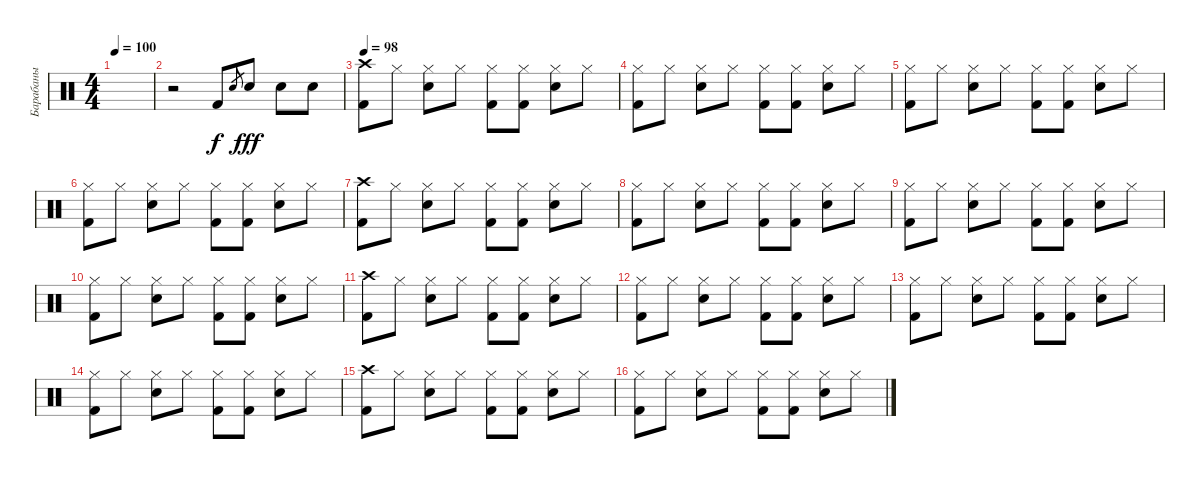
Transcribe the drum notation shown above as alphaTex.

\track ("Барабаны" "Барабаны") {instrument percussion}
\staff {score}
\articulation defaults
\ts (4 4)
\tempo 100
\clef neutral
\ks c
|
r.2 "Kick (hit) 2".8 "Snare (hit) 2".8{gr dy f} "Snare (hit) 2".8{dy fff} "Snare (hit) 2".8 "Snare (hit) 2".8 |
\tempo 98
("Crash high (hit)" "Kick (hit) 2").8 "Hi-Hat (closed)".8 ("Hi-Hat (closed)" "Snare (hit) 2").8 "Hi-Hat (closed)".8 ("Hi-Hat (closed)" "Kick (hit) 2").8 ("Hi-Hat (closed)" "Kick (hit) 2").8 ("Hi-Hat (closed)" "Snare (hit) 2").8 "Hi-Hat (closed)".8 |
("Hi-Hat (closed)" "Kick (hit) 2").8 "Hi-Hat (closed)".8 ("Hi-Hat (closed)" "Snare (hit) 2").8 "Hi-Hat (closed)".8 ("Hi-Hat (closed)" "Kick (hit) 2").8 ("Hi-Hat (closed)" "Kick (hit) 2").8 ("Hi-Hat (closed)" "Snare (hit) 2").8 "Hi-Hat (closed)".8 |
("Hi-Hat (closed)" "Kick (hit) 2").8 "Hi-Hat (closed)".8 ("Hi-Hat (closed)" "Snare (hit) 2").8 "Hi-Hat (closed)".8 ("Hi-Hat (closed)" "Kick (hit) 2").8 ("Hi-Hat (closed)" "Kick (hit) 2").8 ("Hi-Hat (closed)" "Snare (hit) 2").8 "Hi-Hat (closed)".8 |
("Hi-Hat (closed)" "Kick (hit) 2").8 "Hi-Hat (closed)".8 ("Hi-Hat (closed)" "Snare (hit) 2").8 "Hi-Hat (closed)".8 ("Hi-Hat (closed)" "Kick (hit) 2").8 ("Hi-Hat (closed)" "Kick (hit) 2").8 ("Hi-Hat (closed)" "Snare (hit) 2").8 "Hi-Hat (closed)".8 |
("Crash high (hit)" "Kick (hit) 2").8 "Hi-Hat (closed)".8 ("Hi-Hat (closed)" "Snare (hit) 2").8 "Hi-Hat (closed)".8 ("Hi-Hat (closed)" "Kick (hit) 2").8 ("Hi-Hat (closed)" "Kick (hit) 2").8 ("Hi-Hat (closed)" "Snare (hit) 2").8 "Hi-Hat (closed)".8 |
("Hi-Hat (closed)" "Kick (hit) 2").8 "Hi-Hat (closed)".8 ("Hi-Hat (closed)" "Snare (hit) 2").8 "Hi-Hat (closed)".8 ("Hi-Hat (closed)" "Kick (hit) 2").8 ("Hi-Hat (closed)" "Kick (hit) 2").8 ("Hi-Hat (closed)" "Snare (hit) 2").8 "Hi-Hat (closed)".8 |
("Hi-Hat (closed)" "Kick (hit) 2").8 "Hi-Hat (closed)".8 ("Hi-Hat (closed)" "Snare (hit) 2").8 "Hi-Hat (closed)".8 ("Hi-Hat (closed)" "Kick (hit) 2").8 ("Hi-Hat (closed)" "Kick (hit) 2").8 ("Hi-Hat (closed)" "Snare (hit) 2").8 "Hi-Hat (closed)".8 |
("Hi-Hat (closed)" "Kick (hit) 2").8 "Hi-Hat (closed)".8 ("Hi-Hat (closed)" "Snare (hit) 2").8 "Hi-Hat (closed)".8 ("Hi-Hat (closed)" "Kick (hit) 2").8 ("Hi-Hat (closed)" "Kick (hit) 2").8 ("Hi-Hat (closed)" "Snare (hit) 2").8 "Hi-Hat (closed)".8 |
("Crash high (hit)" "Kick (hit) 2").8 "Hi-Hat (closed)".8 ("Hi-Hat (closed)" "Snare (hit) 2").8 "Hi-Hat (closed)".8 ("Hi-Hat (closed)" "Kick (hit) 2").8 ("Hi-Hat (closed)" "Kick (hit) 2").8 ("Hi-Hat (closed)" "Snare (hit) 2").8 "Hi-Hat (closed)".8 |
("Hi-Hat (closed)" "Kick (hit) 2").8 "Hi-Hat (closed)".8 ("Hi-Hat (closed)" "Snare (hit) 2").8 "Hi-Hat (closed)".8 ("Hi-Hat (closed)" "Kick (hit) 2").8 ("Hi-Hat (closed)" "Kick (hit) 2").8 ("Hi-Hat (closed)" "Snare (hit) 2").8 "Hi-Hat (closed)".8 |
("Hi-Hat (closed)" "Kick (hit) 2").8 "Hi-Hat (closed)".8 ("Hi-Hat (closed)" "Snare (hit) 2").8 "Hi-Hat (closed)".8 ("Hi-Hat (closed)" "Kick (hit) 2").8 ("Hi-Hat (closed)" "Kick (hit) 2").8 ("Hi-Hat (closed)" "Snare (hit) 2").8 "Hi-Hat (closed)".8 |
("Hi-Hat (closed)" "Kick (hit) 2").8 "Hi-Hat (closed)".8 ("Hi-Hat (closed)" "Snare (hit) 2").8 "Hi-Hat (closed)".8 ("Hi-Hat (closed)" "Kick (hit) 2").8 ("Hi-Hat (closed)" "Kick (hit) 2").8 ("Hi-Hat (closed)" "Snare (hit) 2").8 "Hi-Hat (closed)".8 |
("Crash high (hit)" "Kick (hit) 2").8 "Hi-Hat (closed)".8 ("Hi-Hat (closed)" "Snare (hit) 2").8 "Hi-Hat (closed)".8 ("Hi-Hat (closed)" "Kick (hit) 2").8 ("Hi-Hat (closed)" "Kick (hit) 2").8 ("Hi-Hat (closed)" "Snare (hit) 2").8 "Hi-Hat (closed)".8 |
("Hi-Hat (closed)" "Kick (hit) 2").8 "Hi-Hat (closed)".8 ("Hi-Hat (closed)" "Snare (hit) 2").8 "Hi-Hat (closed)".8 ("Hi-Hat (closed)" "Kick (hit) 2").8 ("Hi-Hat (closed)" "Kick (hit) 2").8 ("Hi-Hat (closed)" "Snare (hit) 2").8 "Hi-Hat (closed)".8
